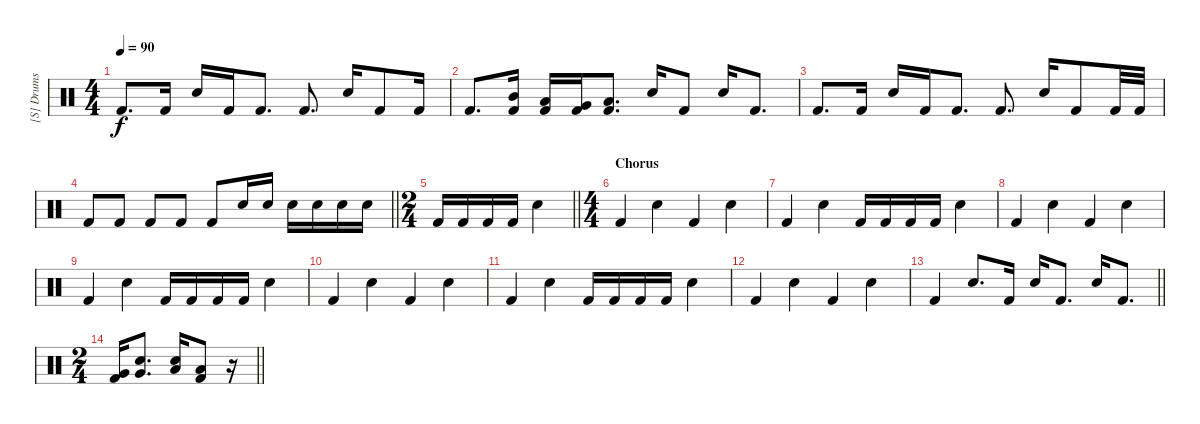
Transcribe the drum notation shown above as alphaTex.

\track ("[S] Drums I (Stewart)" "[S] Drums ") {instrument percussion}
\staff {score}
\articulation defaults
\ts (4 4)
\tempo 90
\clef neutral
\ks c "Kick (hit) 2".8{d dy f} "Kick (hit) 2".16 "Snare (hit) 2".16 "Kick (hit) 2".16 "Kick (hit) 2".8{d} "Kick (hit) 2".8{d} "Snare (hit) 2".16 "Kick (hit) 2".8 "Kick (hit) 2".16
|
"Kick (hit) 2".8{d} ("Kick (hit) 2" "Mid Tom (hit)").16 ("Kick (hit) 2" "Low Tom (hit)").16 ("Kick (hit) 2" "Very Low Tom (hit)").16 ("Kick (hit) 2" "Low Floor Tom (hit)").8{d} "Snare (hit) 2".16 "Kick (hit) 2".8 "Snare (hit) 2".16 "Kick (hit) 2".8{d} |
"Kick (hit) 2".8{d} "Kick (hit) 2".16 "Snare (hit) 2".16 "Kick (hit) 2".16 "Kick (hit) 2".8{d} "Kick (hit) 2".8{d} "Snare (hit) 2".16 "Kick (hit) 2".8 "Kick (hit) 2".32 "Kick (hit) 2".32 |
\barLineRight lightlight "Kick (hit) 2".8 "Kick (hit) 2".8 "Kick (hit) 2".8 "Kick (hit) 2".8 "Kick (hit) 2".8 "Snare (hit) 2".16 "Snare (hit) 2".16 "Snare (hit) 2".16 "Snare (hit) 2".16 "Snare (hit) 2".16 "Snare (hit) 2".16
|
\ts (2 4)
\barLineRight lightlight "Kick (hit) 2".16 "Kick (hit) 2".16 "Kick (hit) 2".16 "Kick (hit) 2".16 "Snare (hit) 2".4
|
\ts (4 4)
\section ("" "Chorus")
"Kick (hit) 2".4 "Snare (hit) 2".4 "Kick (hit) 2".4 "Snare (hit) 2".4 |
"Kick (hit) 2".4 "Snare (hit) 2".4 "Kick (hit) 2".16 "Kick (hit) 2".16 "Kick (hit) 2".16 "Kick (hit) 2".16 "Snare (hit) 2".4 |
"Kick (hit) 2".4 "Snare (hit) 2".4 "Kick (hit) 2".4 "Snare (hit) 2".4 |
"Kick (hit) 2".4 "Snare (hit) 2".4 "Kick (hit) 2".16 "Kick (hit) 2".16 "Kick (hit) 2".16 "Kick (hit) 2".16 "Snare (hit) 2".4 |
"Kick (hit) 2".4 "Snare (hit) 2".4 "Kick (hit) 2".4 "Snare (hit) 2".4 |
"Kick (hit) 2".4 "Snare (hit) 2".4 "Kick (hit) 2".16 "Kick (hit) 2".16 "Kick (hit) 2".16 "Kick (hit) 2".16 "Snare (hit) 2".4 |
"Kick (hit) 2".4 "Snare (hit) 2".4 "Kick (hit) 2".4 "Snare (hit) 2".4 |
\barLineRight lightlight "Kick (hit) 2".4 "Snare (hit) 2".8{d} "Kick (hit) 2".16 "Snare (hit) 2".16 "Kick (hit) 2".8{d} "Snare (hit) 2".16 "Kick (hit) 2".8{d}
|
\ts (2 4)
\barLineRight lightlight
("Kick (hit) 2" "Very Low Tom (hit)").16 ("Snare (hit) 2" "Very Low Tom (hit)").8{d} ("Snare (hit) 2" "Low Floor Tom (hit)").16 ("Kick (hit) 2" "Low Floor Tom (hit)").8 r.16
